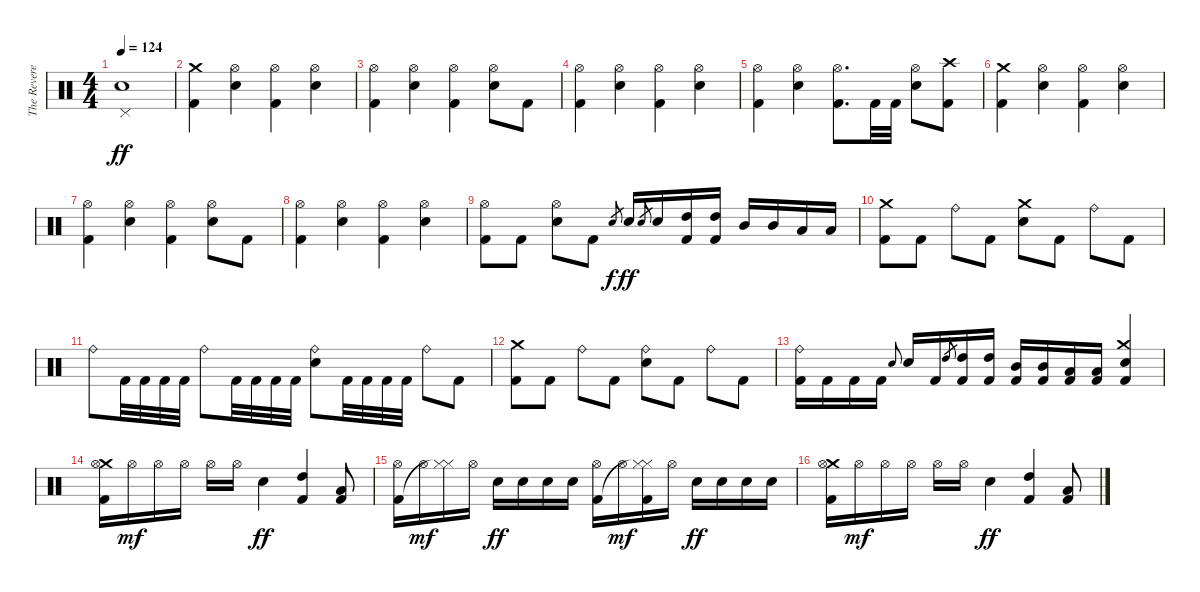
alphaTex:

\track ("The Reverend" "The Revere") {instrument percussion}
\staff {score}
\articulation defaults
\ts (4 4)
\tempo 124
\clef neutral
\ks c
("Pedal Hi-Hat (hit)" "Electric Snare (hit)").1{dy ff} |
("Crash medium (hit)" "Kick (hit) 2").4 ("Hi-Hat (open)" "Electric Snare (hit)").4 ("Hi-Hat (open)" "Kick (hit) 2").4 ("Hi-Hat (open)" "Electric Snare (hit)").4 |
("Hi-Hat (open)" "Kick (hit) 2").4 ("Hi-Hat (open)" "Electric Snare (hit)").4 ("Hi-Hat (open)" "Kick (hit) 2").4 ("Hi-Hat (open)" "Electric Snare (hit)").8 "Kick (hit) 2".8 |
("Hi-Hat (open)" "Kick (hit) 2").4 ("Hi-Hat (open)" "Electric Snare (hit)").4 ("Hi-Hat (open)" "Kick (hit) 2").4 ("Hi-Hat (open)" "Electric Snare (hit)").4 |
("Hi-Hat (open)" "Kick (hit) 2").4 ("Hi-Hat (open)" "Electric Snare (hit)").4 ("Hi-Hat (open)" "Kick (hit) 2").8{d} "Kick (hit) 2".32 "Kick (hit) 2".32 ("Hi-Hat (open)" "Electric Snare (hit)").8 ("Crash high (hit)" "Kick (hit) 2").8 |
("Crash medium (hit)" "Kick (hit) 2").4 ("Hi-Hat (open)" "Electric Snare (hit)").4 ("Hi-Hat (open)" "Kick (hit) 2").4 ("Hi-Hat (open)" "Electric Snare (hit)").4 |
("Hi-Hat (open)" "Kick (hit) 2").4 ("Hi-Hat (open)" "Electric Snare (hit)").4 ("Hi-Hat (open)" "Kick (hit) 2").4 ("Hi-Hat (open)" "Electric Snare (hit)").8 "Kick (hit) 2".8 |
("Hi-Hat (open)" "Kick (hit) 2").4 ("Hi-Hat (open)" "Electric Snare (hit)").4 ("Hi-Hat (open)" "Kick (hit) 2").4 ("Hi-Hat (open)" "Electric Snare (hit)").4 |
("Hi-Hat (open)" "Kick (hit) 2").8 "Kick (hit) 2".8 ("Hi-Hat (open)" "Electric Snare (hit)").8 "Kick (hit) 2".8 "Electric Snare (hit)".8{gr dy f} "Electric Snare (hit)".16{dy ff} "Electric Snare (hit)".8{gr} "Electric Snare (hit)".16 ("High Tom (hit)" "Kick (hit) 2").16 ("High Tom (hit)" "Kick (hit) 2").16 "Mid Tom (hit)".16 "Mid Tom (hit)".16 "Low Tom (hit)".16 "Low Tom (hit)".16 |
("Crash medium (hit)" "Kick (hit) 2").8 "Kick (hit) 2".8 "Ride (bell)".8 "Kick (hit) 2".8 ("Crash medium (hit)" "Electric Snare (hit)").8 "Kick (hit) 2".8 "Ride (bell)".8 "Kick (hit) 2".8 |
"Ride (bell)".8 "Kick (hit) 2".32 "Kick (hit) 2".32 "Kick (hit) 2".32 "Kick (hit) 2".32 "Ride (bell)".8 "Kick (hit) 2".32 "Kick (hit) 2".32 "Kick (hit) 2".32 "Kick (hit) 2".32 ("Ride (bell)" "Electric Snare (hit)").8 "Kick (hit) 2".32 "Kick (hit) 2".32 "Kick (hit) 2".32 "Kick (hit) 2".32 "Ride (bell)".8 "Kick (hit) 2".8 |
("Crash medium (hit)" "Kick (hit) 2").8 "Kick (hit) 2".8 "Ride (bell)".8 "Kick (hit) 2".8 ("Ride (bell)" "Electric Snare (hit)").8 "Kick (hit) 2".8 "Ride (bell)".8 "Kick (hit) 2".8 |
("Ride (bell)" "Kick (hit) 2").16 "Kick (hit) 2".16 "Kick (hit) 2".16 "Kick (hit) 2".16 "Electric Snare (hit)".8{gr onbeat} "Electric Snare (hit)".16 "Kick (hit) 2".16 "High Tom (hit)".8{gr} ("High Tom (hit)" "Kick (hit) 2").16 ("High Tom (hit)" "Kick (hit) 2").16 ("Mid Tom (hit)" "Kick (hit) 2").16 ("Mid Tom (hit)" "Kick (hit) 2").16 ("Low Tom (hit)" "Kick (hit) 2").16 ("Low Tom (hit)" "Kick (hit) 2").16 ("Crash medium (hit)" "Electric Snare (hit)" "Kick (hit) 2").4 |
("Crash medium (hit)" "Hi-Hat (open)" "Kick (hit) 2").16 "Hi-Hat (open)".16{dy mf} "Hi-Hat (open)".16 "Hi-Hat (open)".16 "Hi-Hat (open)".16 "Hi-Hat (open)".16 "Electric Snare (hit)".4{dy ff} ("High Tom (hit)" "Kick (hit) 2").4 ("Low Tom (hit)" "Kick (hit) 2").8 |
("Hi-Hat (open)" "Kick (hit) 2").16 "Hi-Hat (open)".16{dy mf} ("Hi-Hat (closed)" "Hi-Hat (closed)"{t}).16 "Hi-Hat (open)".16 "Electric Snare (hit)".16{dy ff} "Electric Snare (hit)".16 "Electric Snare (hit)".16 "Electric Snare (hit)".16 ("Hi-Hat (open)" "Kick (hit) 2").16 "Hi-Hat (open)".16{dy mf} ("Hi-Hat (closed)" "Hi-Hat (closed)"{t} "Kick (hit) 2").16 "Hi-Hat (open)".16 "Electric Snare (hit)".16{dy ff} "Electric Snare (hit)".16 "Electric Snare (hit)".16 "Electric Snare (hit)".16 |
("Crash medium (hit)" "Hi-Hat (open)" "Kick (hit) 2").16 "Hi-Hat (open)".16{dy mf} "Hi-Hat (open)".16 "Hi-Hat (open)".16 "Hi-Hat (open)".16 "Hi-Hat (open)".16 "Electric Snare (hit)".4{dy ff} ("High Tom (hit)" "Kick (hit) 2").4 ("Low Tom (hit)" "Kick (hit) 2").8
